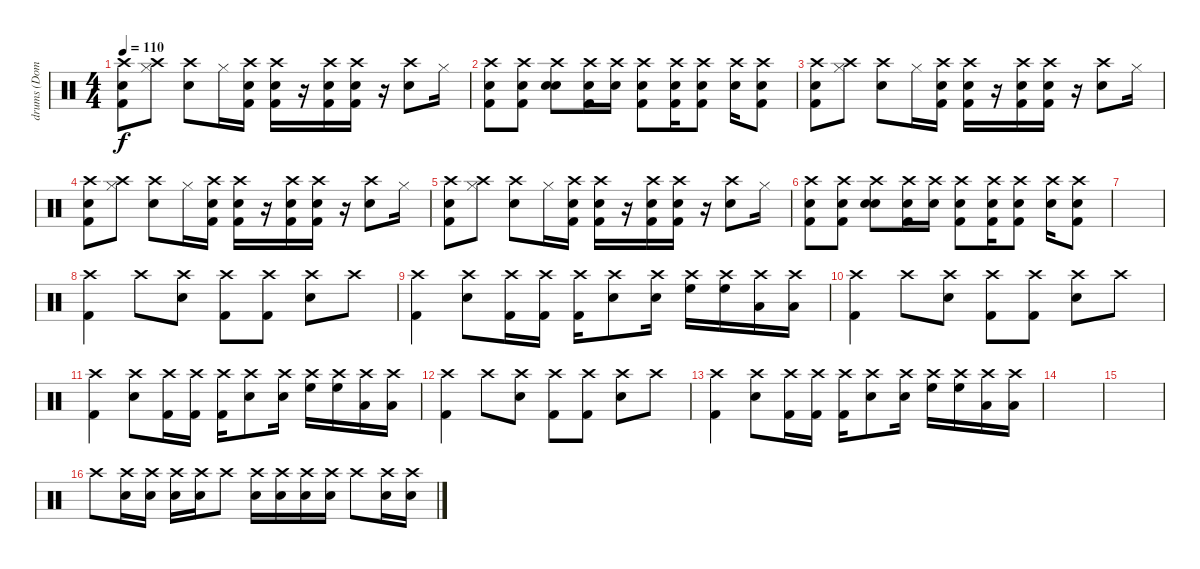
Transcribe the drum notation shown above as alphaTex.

\track ("drums (Dominic howard)" "drums (Dom") {instrument percussion}
\staff {score}
\articulation defaults
\ts (4 4)
\tempo 110
\clef neutral
\ks c
("Crash high (hit)" "Kick (hit) 2" "Snare (hit) 2").8{dy f} ("Crash high (hit)" "Hi-Hat (closed)").8 ("Crash high (hit)" "Electric Snare (hit)").8 "Hi-Hat (closed)".16 ("Crash high (hit)" "Kick (hit) 2" "Snare (hit) 2").16 ("Crash high (hit)" "Kick (hit) 2" "Snare (hit) 2").16 r.16 ("Crash high (hit)" "Kick (hit) 2" "Snare (hit) 2").16 ("Crash high (hit)" "Kick (hit) 2" "Snare (hit) 2").16 r.16 ("Crash high (hit)" "Electric Snare (hit)").8 "Hi-Hat (closed)".16 |
("Crash high (hit)" "Kick (hit) 2" "Snare (hit) 2").8 ("Crash high (hit)" "Kick (hit) 2" "Snare (hit) 2").8 ("Crash high (hit)" "Electric Snare (hit)" "Electric Snare (hit)").8 ("Crash high (hit)" "Kick (hit) 2" "Snare (hit) 2").16 ("Crash high (hit)" "Electric Snare (hit)").16 ("Crash high (hit)" "Kick (hit) 2" "Snare (hit) 2").8 ("Crash high (hit)" "Kick (hit) 2" "Snare (hit) 2").16 ("Crash high (hit)" "Kick (hit) 2" "Snare (hit) 2").8 ("Crash high (hit)" "Electric Snare (hit)").16 ("Crash high (hit)" "Kick (hit) 2" "Snare (hit) 2").8 |
("Crash high (hit)" "Kick (hit) 2" "Snare (hit) 2").8 ("Crash high (hit)" "Hi-Hat (closed)").8 ("Crash high (hit)" "Electric Snare (hit)").8 "Hi-Hat (closed)".16 ("Crash high (hit)" "Kick (hit) 2" "Snare (hit) 2").16 ("Crash high (hit)" "Kick (hit) 2" "Snare (hit) 2").16 r.16 ("Crash high (hit)" "Kick (hit) 2" "Snare (hit) 2").16 ("Crash high (hit)" "Kick (hit) 2" "Snare (hit) 2").16 r.16 ("Crash high (hit)" "Electric Snare (hit)").8 "Hi-Hat (closed)".16 |
("Crash high (hit)" "Kick (hit) 2" "Snare (hit) 2").8 ("Crash high (hit)" "Hi-Hat (closed)").8 ("Crash high (hit)" "Electric Snare (hit)").8 "Hi-Hat (closed)".16 ("Crash high (hit)" "Kick (hit) 2" "Snare (hit) 2").16 ("Crash high (hit)" "Kick (hit) 2" "Snare (hit) 2").16 r.16 ("Crash high (hit)" "Kick (hit) 2" "Snare (hit) 2").16 ("Crash high (hit)" "Kick (hit) 2" "Snare (hit) 2").16 r.16 ("Crash high (hit)" "Electric Snare (hit)").8 "Hi-Hat (closed)".16 |
("Crash high (hit)" "Kick (hit) 2" "Snare (hit) 2").8 ("Crash high (hit)" "Hi-Hat (closed)").8 ("Crash high (hit)" "Electric Snare (hit)").8 "Hi-Hat (closed)".16 ("Crash high (hit)" "Kick (hit) 2" "Snare (hit) 2").16 ("Crash high (hit)" "Kick (hit) 2" "Snare (hit) 2").16 r.16 ("Crash high (hit)" "Kick (hit) 2" "Snare (hit) 2").16 ("Crash high (hit)" "Kick (hit) 2" "Snare (hit) 2").16 r.16 ("Crash high (hit)" "Electric Snare (hit)").8 "Hi-Hat (closed)".16 |
("Crash high (hit)" "Kick (hit) 2" "Snare (hit) 2").8 ("Crash high (hit)" "Kick (hit) 2" "Snare (hit) 2").8 ("Crash high (hit)" "Electric Snare (hit)" "Electric Snare (hit)").8 ("Crash high (hit)" "Kick (hit) 2" "Snare (hit) 2").16 ("Crash high (hit)" "Electric Snare (hit)").16 ("Crash high (hit)" "Kick (hit) 2" "Snare (hit) 2").8 ("Crash high (hit)" "Kick (hit) 2" "Snare (hit) 2").16 ("Crash high (hit)" "Kick (hit) 2" "Snare (hit) 2").8 ("Crash high (hit)" "Electric Snare (hit)").16 ("Crash high (hit)" "Kick (hit) 2" "Snare (hit) 2").8 |
|
("Crash high (hit)" "Kick (hit) 2").4 "Crash high (hit)".8 ("Crash high (hit)" "Snare (hit) 2").8 ("Crash high (hit)" "Kick (hit) 2").8 ("Crash high (hit)" "Kick (hit) 2").8 ("Crash high (hit)" "Snare (hit) 2").8 "Crash high (hit)".8 |
("Crash high (hit)" "Kick (hit) 2").4 ("Crash high (hit)" "Snare (hit) 2").8 ("Crash high (hit)" "Kick (hit) 2").16 ("Crash high (hit)" "Kick (hit) 2").16 ("Crash high (hit)" "Kick (hit) 2").16 ("Crash high (hit)" "Snare (hit) 2").8 ("Crash high (hit)" "Snare (hit) 2").16 ("Crash high (hit)" "High Floor Tom (hit)").16 ("Crash high (hit)" "High Floor Tom (hit)").16 ("Crash high (hit)" "Low Tom (hit)").16 ("Crash high (hit)" "Low Tom (hit)").16 |
("Crash high (hit)" "Kick (hit) 2").4 "Crash high (hit)".8 ("Crash high (hit)" "Snare (hit) 2").8 ("Crash high (hit)" "Kick (hit) 2").8 ("Crash high (hit)" "Kick (hit) 2").8 ("Crash high (hit)" "Snare (hit) 2").8 "Crash high (hit)".8 |
("Crash high (hit)" "Kick (hit) 2").4 ("Crash high (hit)" "Snare (hit) 2").8 ("Crash high (hit)" "Kick (hit) 2").16 ("Crash high (hit)" "Kick (hit) 2").16 ("Crash high (hit)" "Kick (hit) 2").16 ("Crash high (hit)" "Snare (hit) 2").8 ("Crash high (hit)" "Snare (hit) 2").16 ("Crash high (hit)" "High Floor Tom (hit)").16 ("Crash high (hit)" "High Floor Tom (hit)").16 ("Crash high (hit)" "Low Tom (hit)").16 ("Crash high (hit)" "Low Tom (hit)").16 |
("Crash high (hit)" "Kick (hit) 2").4 "Crash high (hit)".8 ("Crash high (hit)" "Snare (hit) 2").8 ("Crash high (hit)" "Kick (hit) 2").8 ("Crash high (hit)" "Kick (hit) 2").8 ("Crash high (hit)" "Snare (hit) 2").8 "Crash high (hit)".8 |
("Crash high (hit)" "Kick (hit) 2").4 ("Crash high (hit)" "Snare (hit) 2").8 ("Crash high (hit)" "Kick (hit) 2").16 ("Crash high (hit)" "Kick (hit) 2").16 ("Crash high (hit)" "Kick (hit) 2").16 ("Crash high (hit)" "Snare (hit) 2").8 ("Crash high (hit)" "Snare (hit) 2").16 ("Crash high (hit)" "High Floor Tom (hit)").16 ("Crash high (hit)" "High Floor Tom (hit)").16 ("Crash high (hit)" "Low Tom (hit)").16 ("Crash high (hit)" "Low Tom (hit)").16 |
|
|
"Crash high (hit)".8 ("Crash high (hit)" "Snare (hit) 2").16 ("Crash high (hit)" "Snare (hit) 2").16 ("Crash high (hit)" "Snare (hit) 2").16 ("Crash high (hit)" "Snare (hit) 2").16 "Crash high (hit)".8 ("Crash high (hit)" "Snare (hit) 2").16 ("Crash high (hit)" "Snare (hit) 2").16 ("Crash high (hit)" "Snare (hit) 2").16 ("Crash high (hit)" "Snare (hit) 2").16 "Crash high (hit)".8 ("Crash high (hit)" "Snare (hit) 2").16 ("Crash high (hit)" "Snare (hit) 2").16
